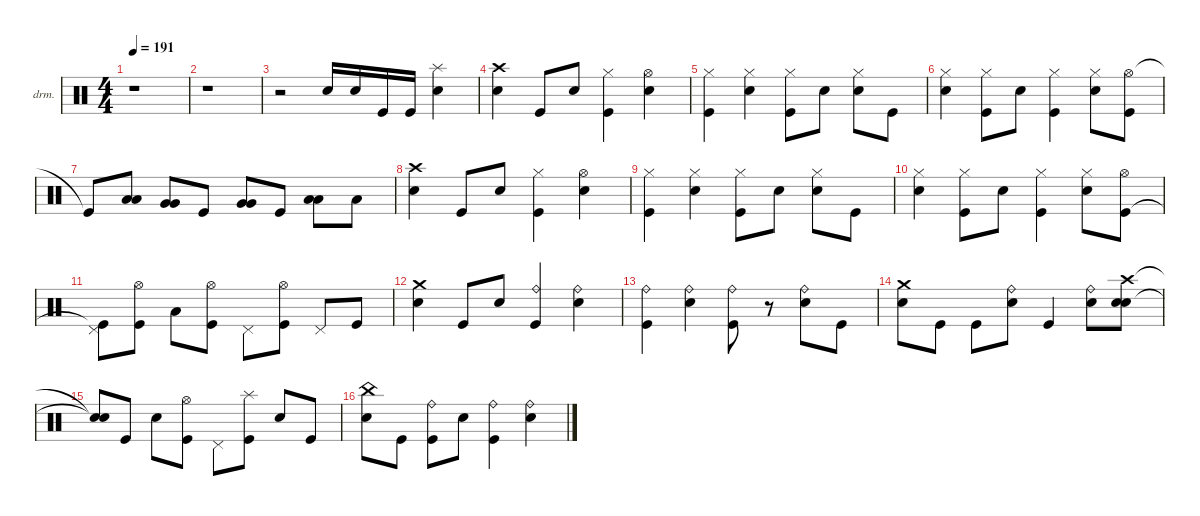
\defaultSystemsLayout 4
\hideDynamics
\bracketExtendMode nobrackets
\firstSystemTrackNameOrientation horizontal
\otherSystemsTrackNameOrientation horizontal
\track ("Drumkit" "drm.") {instrument percussion}
\staff {score}
\articulation defaults
\ts (4 4)
\tempo 191
\clef neutral
\ks c
r.1{dy f beam Down} |
r.1{beam Down} |
r.2{beam Down} "Snare (hit) 2".16{beam Up} "Snare (hit) 2".16{beam Up} "Kick (hit)".16{beam Up} "Kick (hit)".16{beam Up} ("Snare (hit) 2" "Splash (hit)").4{dy ff beam Down} |
("Crash high (hit)" "Snare (hit) 2").4{dy mf beam Down} "Kick (hit)".8{dy f beam Up} "Snare (hit) 2".8{dy mf beam Up} ("Hi-Hat (closed)" "Kick (hit)").4{beam Down} ("Hi-Hat (open)" "Snare (hit) 2").4{beam Down} |
("Hi-Hat (closed)" "Kick (hit)").4{beam Down} ("Hi-Hat (closed)" "Snare (hit) 2").4{beam Down} ("Hi-Hat (closed)" "Kick (hit)").8{beam Down} "Snare (hit) 2".8{dy mp beam Down} ("Hi-Hat (closed)" "Snare (hit) 2").8{dy mf beam Down} "Kick (hit)".8{dy f beam Down} |
("Hi-Hat (closed)" "Snare (hit) 2").4{dy mf beam Down} ("Hi-Hat (closed)" "Kick (hit)").8{beam Down} "Snare (hit) 2".8{dy f beam Down} ("Hi-Hat (closed)" "Kick (hit)").4{dy mf beam Down} ("Hi-Hat (closed)" "Snare (hit) 2").8{beam Down} ("Hi-Hat (open)" "Kick (hit)").8{beam Down} |
"Kick (hit)"{t}.8{dy f beam Up} ("Low Tom (hit)" "Low Tom (hit)").8{dy mp beam Up} ("Very Low Tom (hit)" "Very Low Tom (hit)").8{beam Up} "Kick (hit)".8{dy f beam Up} ("Very Low Tom (hit)" "Very Low Tom (hit)").8{dy mp beam Up} "Kick (hit)".8{dy f beam Up} ("Low Floor Tom (hit)" "Low Floor Tom (hit)").8{dy mp beam Down} "Low Floor Tom (hit)".8{dy f beam Down} |
("Crash high (hit)" "Snare (hit) 2").4{dy mf beam Down} "Kick (hit)".8{dy f beam Up} "Snare (hit) 2".8{dy mf beam Up} ("Hi-Hat (closed)" "Kick (hit)").4{beam Down} ("Hi-Hat (open)" "Snare (hit) 2").4{beam Down} |
("Hi-Hat (closed)" "Kick (hit)").4{beam Down} ("Hi-Hat (closed)" "Snare (hit) 2").4{beam Down} ("Hi-Hat (closed)" "Kick (hit)").8{beam Down} "Snare (hit) 2".8{dy mp beam Down} ("Hi-Hat (closed)" "Snare (hit) 2").8{dy mf beam Down} "Kick (hit)".8{dy f beam Down} |
("Hi-Hat (closed)" "Snare (hit) 2").4{dy mf beam Down} ("Hi-Hat (closed)" "Kick (hit)").8{beam Down} "Snare (hit) 2".8{dy f beam Down} ("Hi-Hat (closed)" "Kick (hit)").4{dy mf beam Down} ("Hi-Hat (closed)" "Snare (hit) 2").8{beam Down} ("Hi-Hat (open)" "Kick (hit)").8{beam Down} |
("Pedal Hi-Hat (hit)" "Kick (hit)"{t}).8{dy mp beam Down} ("Hi-Hat (open)" "Kick (hit)").8{beam Down} "Low Tom (hit)".8{beam Down} ("Hi-Hat (open)" "Kick (hit)").8{beam Down} "Pedal Hi-Hat (hit)".8{beam Down} ("Hi-Hat (open)" "Kick (hit)").8{beam Down} "Pedal Hi-Hat (hit)".8{beam Up} "Kick (hit)".8{dy f beam Up} |
("Crash medium (hit)" "Snare (hit) 2").4{dy mf beam Down} "Kick (hit)".8{dy f beam Up} "Snare (hit) 2".8{dy mf beam Up} ("Ride (bell)" "Kick (hit)").4{beam Up} ("Ride (bell)" "Snare (hit) 2").4{beam Down} |
("Ride (bell)" "Kick (hit)").4{beam Down} ("Ride (bell)" "Snare (hit) 2").4{beam Down} ("Ride (bell)" "Kick (hit)").8{beam Down} r.8{beam Down} ("Ride (bell)" "Snare (hit) 2").8{beam Down} "Kick (hit)".8{dy f beam Down} |
("Crash medium (hit)" "Snare (hit) 2").8{dy mp beam Down} "Kick (hit)".8{dy f beam Down} "Kick (hit)".8{beam Down} ("Ride (bell)" "Snare (hit) 2").8{dy mp beam Down} "Kick (hit)".4{dy f beam Up} ("Ride (bell)" "Snare (hit) 2").8{dy mp beam Down} ("Crash high (hit)" "Snare (hit) 2" "Snare (hit) 2").8{beam Down} |
("Snare (hit) 2"{t} "Snare (hit) 2"{t}).8{dy f beam Up} "Kick (hit)".8{beam Up} "Snare (hit) 2".8{beam Down} ("Kick (hit)" "Hi-Hat (open)").8{beam Down} "Pedal Hi-Hat (hit)".8{beam Down} ("Splash (hit)" "Kick (hit)").8{beam Down} "Snare (hit) 2".8{beam Up} "Kick (hit)".8{beam Up} |
("Snare (hit) 2" "China (hit)").8{beam Down} "Kick (hit)".8{beam Down} ("Kick (hit)" "Ride (bell)").8{beam Down} "Snare (hit) 2".8{beam Down} ("Kick (hit)" "Ride (bell)").4{beam Down} ("Snare (hit) 2" "Ride (bell)").4{beam Down}
